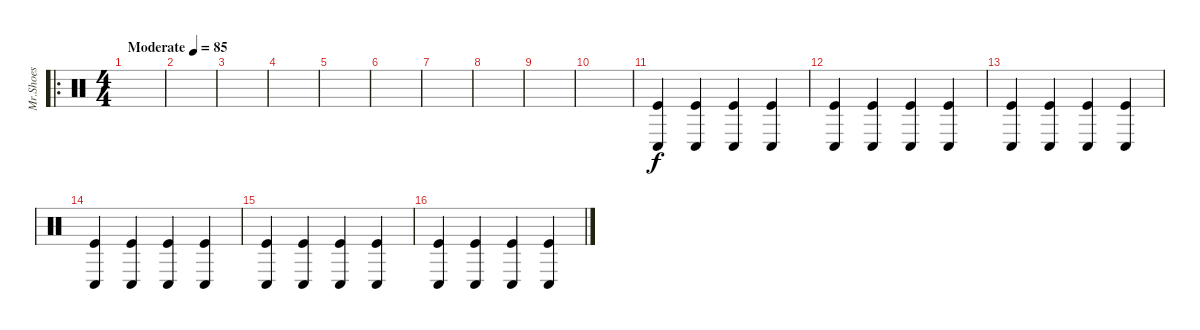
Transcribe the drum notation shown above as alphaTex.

\track ("Mr.Shoes" "Mr.Shoes") {instrument percussion}
\staff {score}
\articulation defaults
\ro
\ts (4 4)
\tempo (85 "Moderate")
\clef neutral
\ks c
|
|
|
|
|
|
|
|
|
|
("Kick (hit)" "Conga low (hit)").4 ("Kick (hit)" "Conga low (hit)").4 ("Kick (hit)" "Conga low (hit)").4 ("Kick (hit)" "Conga low (hit)").4 |
("Kick (hit)" "Conga low (hit)").4 ("Kick (hit)" "Conga low (hit)").4 ("Kick (hit)" "Conga low (hit)").4 ("Kick (hit)" "Conga low (hit)").4 |
("Kick (hit)" "Conga low (hit)").4 ("Kick (hit)" "Conga low (hit)").4 ("Kick (hit)" "Conga low (hit)").4 ("Kick (hit)" "Conga low (hit)").4 |
("Kick (hit)" "Conga low (hit)").4 ("Kick (hit)" "Conga low (hit)").4 ("Kick (hit)" "Conga low (hit)").4 ("Kick (hit)" "Conga low (hit)").4 |
("Kick (hit)" "Conga low (hit)").4 ("Kick (hit)" "Conga low (hit)").4 ("Kick (hit)" "Conga low (hit)").4 ("Kick (hit)" "Conga low (hit)").4 |
("Kick (hit)" "Conga low (hit)").4 ("Kick (hit)" "Conga low (hit)").4 ("Kick (hit)" "Conga low (hit)").4 ("Kick (hit)" "Conga low (hit)").4
